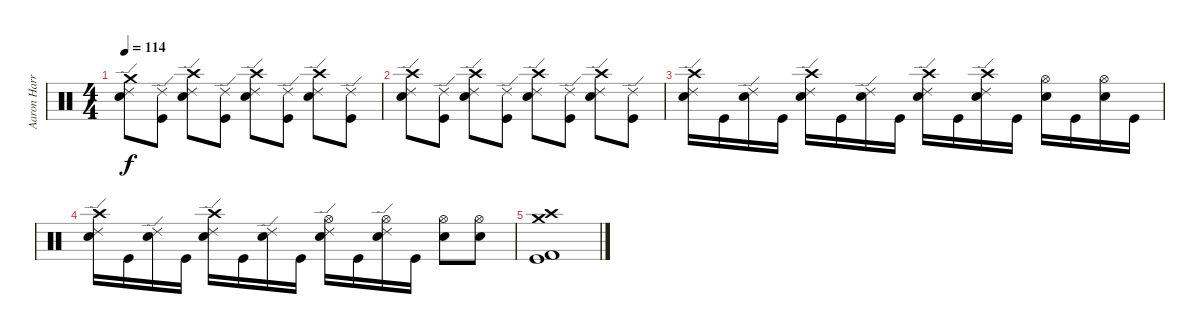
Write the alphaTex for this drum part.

\track ("Aaron Harris" "Aaron Harr") {instrument percussion}
\staff {score}
\articulation defaults
\ts (4 4)
\tempo 114
\clef neutral
\ks c
("Crash medium (hit)" "Ride (edge) 2" "Electric Snare (hit)").8{dy f} ("Ride (edge) 2" "Kick (hit)").8 ("Crash high (hit)" "Ride (edge) 2" "Electric Snare (hit)").8 ("Ride (edge) 2" "Kick (hit)").8 ("Crash high (hit)" "Ride (edge) 2" "Electric Snare (hit)").8 ("Ride (edge) 2" "Kick (hit)").8 ("Crash high (hit)" "Ride (edge) 2" "Electric Snare (hit)").8 ("Ride (edge) 2" "Kick (hit)").8 |
("Crash high (hit)" "Ride (edge) 2" "Electric Snare (hit)").8 ("Ride (edge) 2" "Kick (hit)").8 ("Crash high (hit)" "Ride (edge) 2" "Electric Snare (hit)").8 ("Ride (edge) 2" "Kick (hit)").8 ("Crash high (hit)" "Ride (edge) 2" "Electric Snare (hit)").8 ("Ride (edge) 2" "Kick (hit)").8 ("Crash high (hit)" "Ride (edge) 2" "Electric Snare (hit)").8 ("Ride (edge) 2" "Kick (hit)").8 |
("Crash high (hit)" "Ride (edge) 2" "Electric Snare (hit)").16 "Kick (hit)".16 ("Ride (edge) 2" "Electric Snare (hit)").16 "Kick (hit)".16 ("Crash high (hit)" "Ride (edge) 2" "Electric Snare (hit)").16 "Kick (hit)".16 ("Ride (edge) 2" "Electric Snare (hit)").16 "Kick (hit)".16 ("Crash high (hit)" "Ride (edge) 2" "Electric Snare (hit)").16 "Kick (hit)".16 ("Crash high (hit)" "Ride (edge) 2" "Electric Snare (hit)").16 "Kick (hit)".16 ("Hi-Hat (open)" "Electric Snare (hit)").16 "Kick (hit)".16 ("Hi-Hat (open)" "Electric Snare (hit)").16 "Kick (hit)".16 |
("Crash high (hit)" "Ride (edge) 2" "Electric Snare (hit)").16 "Kick (hit)".16 ("Ride (edge) 2" "Electric Snare (hit)").16 "Kick (hit)".16 ("Crash high (hit)" "Ride (edge) 2" "Electric Snare (hit)").16 "Kick (hit)".16 ("Ride (edge) 2" "Electric Snare (hit)").16 "Kick (hit)".16 ("Hi-Hat (open)" "Ride (edge) 2" "Electric Snare (hit)").16 "Kick (hit)".16 ("Hi-Hat (open)" "Ride (edge) 2" "Electric Snare (hit)").16 "Kick (hit)".16 ("Hi-Hat (open)" "Electric Snare (hit)").8 ("Hi-Hat (open)" "Electric Snare (hit)").8 |
("Crash medium (hit)" "Crash high (hit)" "Kick (hit) 2" "Kick (hit)").1
